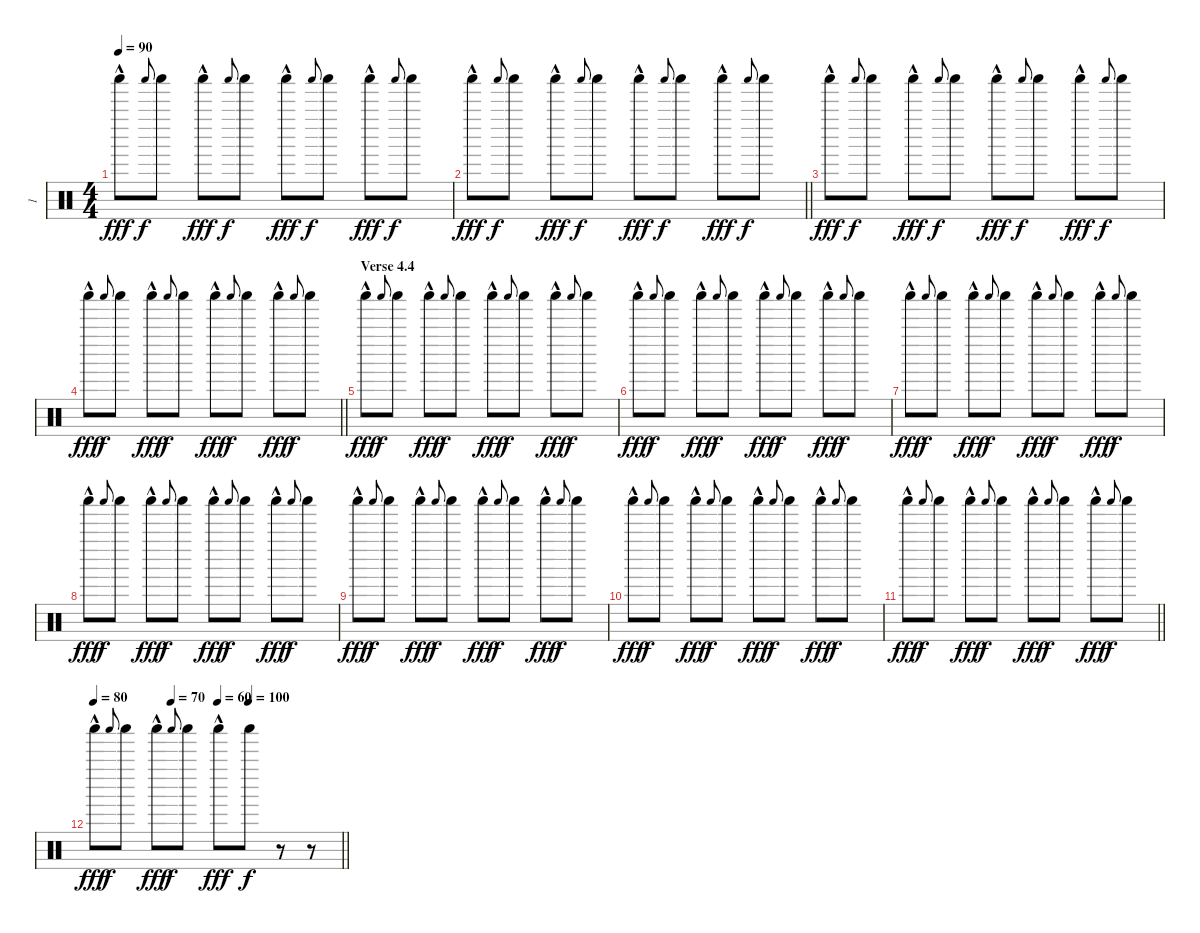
\track ("1" "1") {instrument percussion}
\staff {score}
\articulation defaults
\ts (4 4)
\tempo 90
\clef neutral
\ks c "Shaker (hit)"{hac}.8{dy fff} "Shaker (hit)".8{gr onbeat dy f} "Shaker (hit)".8 "Shaker (hit)"{hac}.8{dy fff} "Shaker (hit)".8{gr onbeat dy f} "Shaker (hit)".8 "Shaker (hit)"{hac}.8{dy fff} "Shaker (hit)".8{gr onbeat dy f} "Shaker (hit)".8 "Shaker (hit)"{hac}.8{dy fff} "Shaker (hit)".8{gr onbeat dy f} "Shaker (hit)".8
|
\barLineRight lightlight "Shaker (hit)"{hac}.8{dy fff} "Shaker (hit)".8{gr onbeat dy f} "Shaker (hit)".8 "Shaker (hit)"{hac}.8{dy fff} "Shaker (hit)".8{gr onbeat dy f} "Shaker (hit)".8 "Shaker (hit)"{hac}.8{dy fff} "Shaker (hit)".8{gr onbeat dy f} "Shaker (hit)".8 "Shaker (hit)"{hac}.8{dy fff} "Shaker (hit)".8{gr onbeat dy f} "Shaker (hit)".8
|
"Shaker (hit)"{hac}.8{dy fff} "Shaker (hit)".8{gr onbeat dy f} "Shaker (hit)".8 "Shaker (hit)"{hac}.8{dy fff} "Shaker (hit)".8{gr onbeat dy f} "Shaker (hit)".8 "Shaker (hit)"{hac}.8{dy fff} "Shaker (hit)".8{gr onbeat dy f} "Shaker (hit)".8 "Shaker (hit)"{hac}.8{dy fff} "Shaker (hit)".8{gr onbeat dy f} "Shaker (hit)".8 |
\barLineRight lightlight "Shaker (hit)"{hac}.8{dy fff} "Shaker (hit)".8{gr onbeat dy f} "Shaker (hit)".8 "Shaker (hit)"{hac}.8{dy fff} "Shaker (hit)".8{gr onbeat dy f} "Shaker (hit)".8 "Shaker (hit)"{hac}.8{dy fff} "Shaker (hit)".8{gr onbeat dy f} "Shaker (hit)".8 "Shaker (hit)"{hac}.8{dy fff} "Shaker (hit)".8{gr onbeat dy f} "Shaker (hit)".8
|
\section ("" "Verse 4.4")
"Shaker (hit)"{hac}.8{dy fff} "Shaker (hit)".8{gr onbeat dy f} "Shaker (hit)".8 "Shaker (hit)"{hac}.8{dy fff} "Shaker (hit)".8{gr onbeat dy f} "Shaker (hit)".8 "Shaker (hit)"{hac}.8{dy fff} "Shaker (hit)".8{gr onbeat dy f} "Shaker (hit)".8 "Shaker (hit)"{hac}.8{dy fff} "Shaker (hit)".8{gr onbeat dy f} "Shaker (hit)".8 |
"Shaker (hit)"{hac}.8{dy fff} "Shaker (hit)".8{gr onbeat dy f} "Shaker (hit)".8 "Shaker (hit)"{hac}.8{dy fff} "Shaker (hit)".8{gr onbeat dy f} "Shaker (hit)".8 "Shaker (hit)"{hac}.8{dy fff} "Shaker (hit)".8{gr onbeat dy f} "Shaker (hit)".8 "Shaker (hit)"{hac}.8{dy fff} "Shaker (hit)".8{gr onbeat dy f} "Shaker (hit)".8 |
"Shaker (hit)"{hac}.8{dy fff} "Shaker (hit)".8{gr onbeat dy f} "Shaker (hit)".8 "Shaker (hit)"{hac}.8{dy fff} "Shaker (hit)".8{gr onbeat dy f} "Shaker (hit)".8 "Shaker (hit)"{hac}.8{dy fff} "Shaker (hit)".8{gr onbeat dy f} "Shaker (hit)".8 "Shaker (hit)"{hac}.8{dy fff} "Shaker (hit)".8{gr onbeat dy f} "Shaker (hit)".8 |
"Shaker (hit)"{hac}.8{dy fff} "Shaker (hit)".8{gr onbeat dy f} "Shaker (hit)".8 "Shaker (hit)"{hac}.8{dy fff} "Shaker (hit)".8{gr onbeat dy f} "Shaker (hit)".8 "Shaker (hit)"{hac}.8{dy fff} "Shaker (hit)".8{gr onbeat dy f} "Shaker (hit)".8 "Shaker (hit)"{hac}.8{dy fff} "Shaker (hit)".8{gr onbeat dy f} "Shaker (hit)".8 |
"Shaker (hit)"{hac}.8{dy fff} "Shaker (hit)".8{gr onbeat dy f} "Shaker (hit)".8 "Shaker (hit)"{hac}.8{dy fff} "Shaker (hit)".8{gr onbeat dy f} "Shaker (hit)".8 "Shaker (hit)"{hac}.8{dy fff} "Shaker (hit)".8{gr onbeat dy f} "Shaker (hit)".8 "Shaker (hit)"{hac}.8{dy fff} "Shaker (hit)".8{gr onbeat dy f} "Shaker (hit)".8 |
"Shaker (hit)"{hac}.8{dy fff} "Shaker (hit)".8{gr onbeat dy f} "Shaker (hit)".8 "Shaker (hit)"{hac}.8{dy fff} "Shaker (hit)".8{gr onbeat dy f} "Shaker (hit)".8 "Shaker (hit)"{hac}.8{dy fff} "Shaker (hit)".8{gr onbeat dy f} "Shaker (hit)".8 "Shaker (hit)"{hac}.8{dy fff} "Shaker (hit)".8{gr onbeat dy f} "Shaker (hit)".8 |
\barLineRight lightlight "Shaker (hit)"{hac}.8{dy fff} "Shaker (hit)".8{gr onbeat dy f} "Shaker (hit)".8 "Shaker (hit)"{hac}.8{dy fff} "Shaker (hit)".8{gr onbeat dy f} "Shaker (hit)".8 "Shaker (hit)"{hac}.8{dy fff} "Shaker (hit)".8{gr onbeat dy f} "Shaker (hit)".8 "Shaker (hit)"{hac}.8{dy fff} "Shaker (hit)".8{gr onbeat dy f} "Shaker (hit)".8
|
\tempo 80
\tempo (70 0.3125)
\tempo (60 0.5)
\tempo (100 0.625)
\barLineRight lightlight "Shaker (hit)"{hac}.8{dy fff} "Shaker (hit)".8{gr onbeat dy f} "Shaker (hit)".8 "Shaker (hit)"{hac}.8{dy fff} "Shaker (hit)".8{gr onbeat dy f} "Shaker (hit)".8 "Shaker (hit)"{hac}.8{dy fff} "Shaker (hit)".8{dy f}
r.8 r.8
